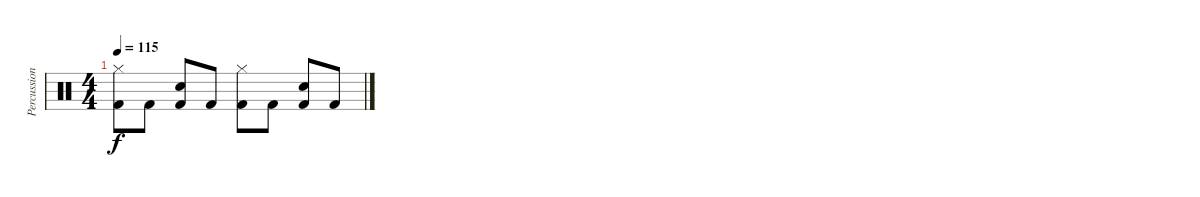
\track ("Percussion" "Percussion") {instrument percussion}
\staff {score}
\articulation defaults
\ts (4 4)
\tempo 115
\clef neutral
\ks c
("Kick (hit) 2" "Hi-Hat (closed)").8{dy f} "Kick (hit) 2".8 ("Kick (hit) 2" "Snare (hit) 2").8 "Kick (hit) 2".8 ("Kick (hit) 2" "Hi-Hat (closed)").8 "Kick (hit) 2".8 ("Kick (hit) 2" "Snare (hit) 2").8 "Kick (hit) 2".8
